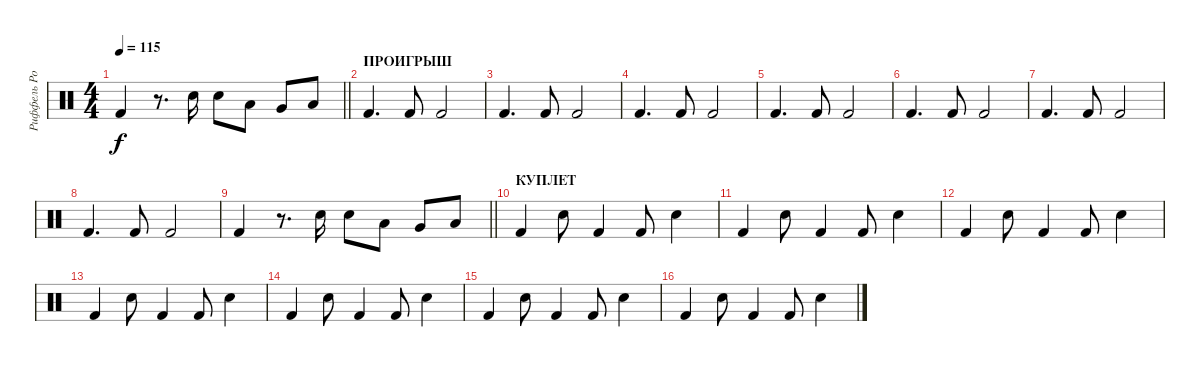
\track ("Риффель Роман(Главные)" "Риффель Ро") {instrument percussion}
\staff {score}
\articulation defaults
\ts (4 4)
\tempo 115
\clef neutral
\barLineRight lightlight
\ks c "Kick (hit) 2".4{dy f}
r.8{d} "Electric Snare (hit)".16 "Electric Snare (hit)".8 "Low Tom (hit)".8 "Very Low Tom (hit)".8 "Low Floor Tom (hit)".8 |
\section ("" "ПРОИГРЫШ")
"Kick (hit) 2".4{d} "Kick (hit) 2".8 "Kick (hit) 2".2 |
"Kick (hit) 2".4{d} "Kick (hit) 2".8 "Kick (hit) 2".2 |
"Kick (hit) 2".4{d} "Kick (hit) 2".8 "Kick (hit) 2".2 |
"Kick (hit) 2".4{d} "Kick (hit) 2".8 "Kick (hit) 2".2 |
"Kick (hit) 2".4{d} "Kick (hit) 2".8 "Kick (hit) 2".2 |
"Kick (hit) 2".4{d} "Kick (hit) 2".8 "Kick (hit) 2".2 |
"Kick (hit) 2".4{d} "Kick (hit) 2".8 "Kick (hit) 2".2 |
\barLineRight lightlight "Kick (hit) 2".4
r.8{d} "Electric Snare (hit)".16 "Electric Snare (hit)".8 "Low Tom (hit)".8 "Very Low Tom (hit)".8 "Low Floor Tom (hit)".8 |
\section ("" "КУПЛЕТ")
"Kick (hit) 2".4 "Electric Snare (hit)".8 "Kick (hit) 2".4 "Kick (hit) 2".8 "Electric Snare (hit)".4 |
"Kick (hit) 2".4 "Electric Snare (hit)".8 "Kick (hit) 2".4 "Kick (hit) 2".8 "Electric Snare (hit)".4 |
"Kick (hit) 2".4 "Electric Snare (hit)".8 "Kick (hit) 2".4 "Kick (hit) 2".8 "Electric Snare (hit)".4 |
"Kick (hit) 2".4 "Electric Snare (hit)".8 "Kick (hit) 2".4 "Kick (hit) 2".8 "Electric Snare (hit)".4 |
"Kick (hit) 2".4 "Electric Snare (hit)".8 "Kick (hit) 2".4 "Kick (hit) 2".8 "Electric Snare (hit)".4 |
"Kick (hit) 2".4 "Electric Snare (hit)".8 "Kick (hit) 2".4 "Kick (hit) 2".8 "Electric Snare (hit)".4 |
"Kick (hit) 2".4 "Electric Snare (hit)".8 "Kick (hit) 2".4 "Kick (hit) 2".8 "Electric Snare (hit)".4
